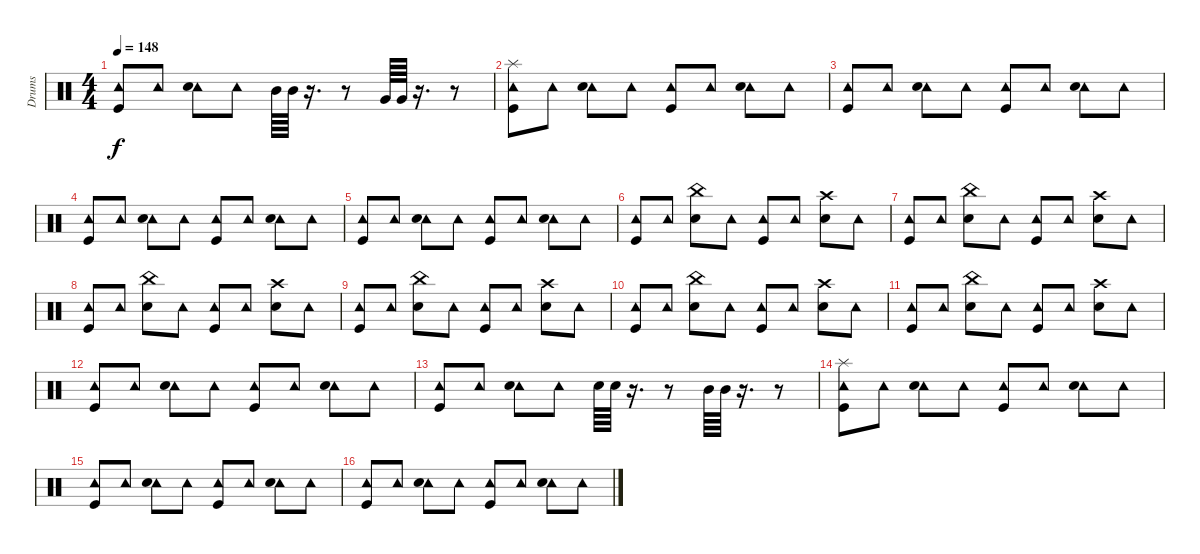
\track ("Drums" "Drums") {instrument percussion}
\staff {score}
\articulation defaults
\ts (4 4)
\tempo 148
\clef neutral
\ks c
("Tambourine (hit)" "Kick (hit)").8{dy f} "Tambourine (hit)".8 ("Tambourine (hit)" "Snare (hit) 2").8 "Tambourine (hit)".8 "Mid Tom (hit)".64 "Mid Tom (hit)".64 r.16{d} r.8 "Very Low Tom (hit)".64 "Very Low Tom (hit)".64 r.16{d} r.8 |
("Tambourine (hit)" "Kick (hit)" "Splash (hit)").8 "Tambourine (hit)".8 ("Tambourine (hit)" "Snare (hit) 2").8 "Tambourine (hit)".8 ("Tambourine (hit)" "Kick (hit)").8 "Tambourine (hit)".8 ("Tambourine (hit)" "Snare (hit) 2").8 "Tambourine (hit)".8 |
("Tambourine (hit)" "Kick (hit)").8 "Tambourine (hit)".8 ("Tambourine (hit)" "Snare (hit) 2").8 "Tambourine (hit)".8 ("Tambourine (hit)" "Kick (hit)").8 "Tambourine (hit)".8 ("Tambourine (hit)" "Snare (hit) 2").8 "Tambourine (hit)".8 |
("Tambourine (hit)" "Kick (hit)").8 "Tambourine (hit)".8 ("Tambourine (hit)" "Snare (hit) 2").8 "Tambourine (hit)".8 ("Tambourine (hit)" "Kick (hit)").8 "Tambourine (hit)".8 ("Tambourine (hit)" "Snare (hit) 2").8 "Tambourine (hit)".8 |
("Tambourine (hit)" "Kick (hit)").8 "Tambourine (hit)".8 ("Tambourine (hit)" "Snare (hit) 2").8 "Tambourine (hit)".8 ("Tambourine (hit)" "Kick (hit)").8 "Tambourine (hit)".8 ("Tambourine (hit)" "Snare (hit) 2").8 "Tambourine (hit)".8 |
("Tambourine (hit)" "Kick (hit)").8 "Tambourine (hit)".8 ("Snare (hit) 2" "China (hit)").8 "Tambourine (hit)".8 ("Tambourine (hit)" "Kick (hit)").8 "Tambourine (hit)".8 ("Snare (hit) 2" "Crash high (hit)").8 "Tambourine (hit)".8 |
("Tambourine (hit)" "Kick (hit)").8 "Tambourine (hit)".8 ("Snare (hit) 2" "China (hit)").8 "Tambourine (hit)".8 ("Tambourine (hit)" "Kick (hit)").8 "Tambourine (hit)".8 ("Snare (hit) 2" "Crash high (hit)").8 "Tambourine (hit)".8 |
("Tambourine (hit)" "Kick (hit)").8 "Tambourine (hit)".8 ("Snare (hit) 2" "China (hit)").8 "Tambourine (hit)".8 ("Tambourine (hit)" "Kick (hit)").8 "Tambourine (hit)".8 ("Snare (hit) 2" "Crash high (hit)").8 "Tambourine (hit)".8 |
("Tambourine (hit)" "Kick (hit)").8 "Tambourine (hit)".8 ("Snare (hit) 2" "China (hit)").8 "Tambourine (hit)".8 ("Tambourine (hit)" "Kick (hit)").8 "Tambourine (hit)".8 ("Snare (hit) 2" "Crash high (hit)").8 "Tambourine (hit)".8 |
("Tambourine (hit)" "Kick (hit)").8 "Tambourine (hit)".8 ("Snare (hit) 2" "China (hit)").8 "Tambourine (hit)".8 ("Tambourine (hit)" "Kick (hit)").8 "Tambourine (hit)".8 ("Snare (hit) 2" "Crash high (hit)").8 "Tambourine (hit)".8 |
("Tambourine (hit)" "Kick (hit)").8 "Tambourine (hit)".8 ("Snare (hit) 2" "China (hit)").8 "Tambourine (hit)".8 ("Tambourine (hit)" "Kick (hit)").8 "Tambourine (hit)".8 ("Snare (hit) 2" "Crash high (hit)").8 "Tambourine (hit)".8 |
("Tambourine (hit)" "Kick (hit)").8 "Tambourine (hit)".8 ("Tambourine (hit)" "Snare (hit) 2").8 "Tambourine (hit)".8 ("Tambourine (hit)" "Kick (hit)").8 "Tambourine (hit)".8 ("Tambourine (hit)" "Snare (hit) 2").8 "Tambourine (hit)".8 |
("Tambourine (hit)" "Kick (hit)").8 "Tambourine (hit)".8 ("Tambourine (hit)" "Snare (hit) 2").8 "Tambourine (hit)".8 "Snare (hit) 2".64 "Snare (hit) 2".64 r.16{d} r.8 "Mid Tom (hit)".64 "Mid Tom (hit)".64 r.16{d} r.8 |
("Tambourine (hit)" "Kick (hit)" "Splash (hit)").8 "Tambourine (hit)".8 ("Tambourine (hit)" "Snare (hit) 2").8 "Tambourine (hit)".8 ("Tambourine (hit)" "Kick (hit)").8 "Tambourine (hit)".8 ("Tambourine (hit)" "Snare (hit) 2").8 "Tambourine (hit)".8 |
("Tambourine (hit)" "Kick (hit)").8 "Tambourine (hit)".8 ("Tambourine (hit)" "Snare (hit) 2").8 "Tambourine (hit)".8 ("Tambourine (hit)" "Kick (hit)").8 "Tambourine (hit)".8 ("Tambourine (hit)" "Snare (hit) 2").8 "Tambourine (hit)".8 |
("Tambourine (hit)" "Kick (hit)").8 "Tambourine (hit)".8 ("Tambourine (hit)" "Snare (hit) 2").8 "Tambourine (hit)".8 ("Tambourine (hit)" "Kick (hit)").8 "Tambourine (hit)".8 ("Tambourine (hit)" "Snare (hit) 2").8 "Tambourine (hit)".8
